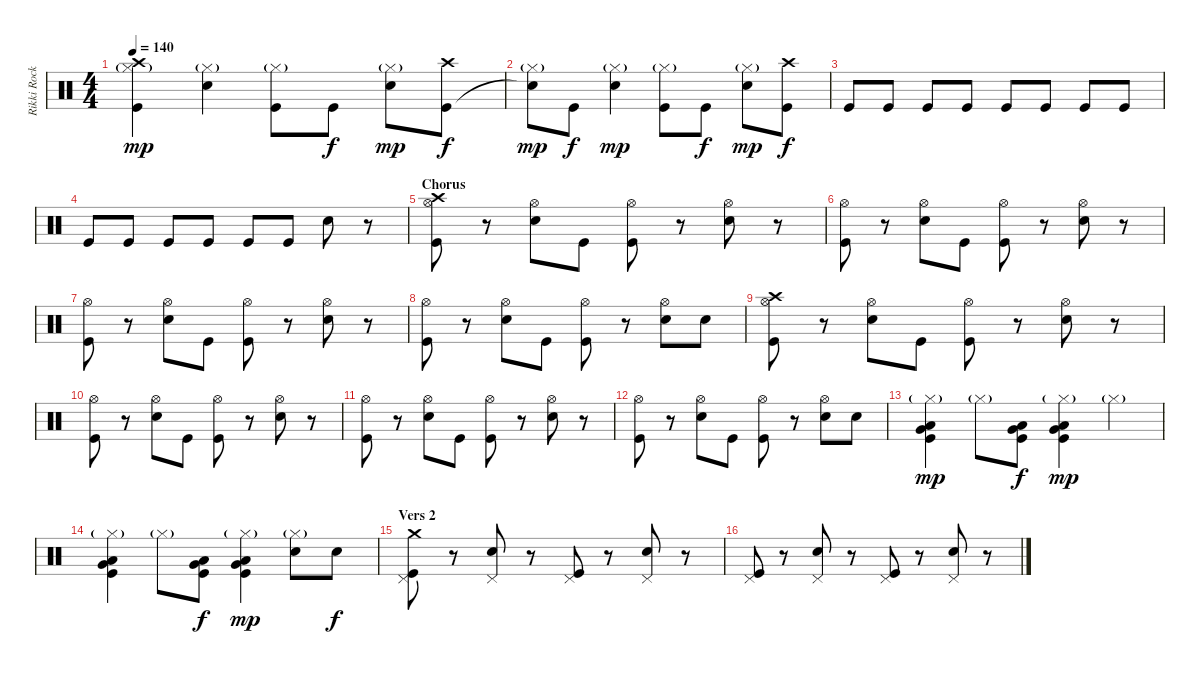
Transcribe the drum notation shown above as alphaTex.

\track ("Rikki Rockett - Drums" "Rikki Rock") {instrument percussion}
\staff {score}
\articulation defaults
\ts (4 4)
\tempo 140
\clef neutral
\ks c
("Hi-Hat (closed)"{g} "Crash high (hit)" "Kick (hit)").4{dy mp} ("Hi-Hat (closed)"{g} "Snare (hit) 2").4 ("Hi-Hat (closed)"{g} "Kick (hit)").8 "Kick (hit)".8{dy f} ("Hi-Hat (closed)"{g} "Snare (hit) 2").8{dy mp} ("Crash high (hit)" "Kick (hit)").8{dy f} |
("Hi-Hat (closed)"{g} "Snare (hit)"{t}).8{dy mp} "Kick (hit)".8{dy f} ("Hi-Hat (closed)"{g} "Snare (hit) 2").4{dy mp} ("Hi-Hat (closed)"{g} "Kick (hit)").8 "Kick (hit)".8{dy f} ("Hi-Hat (closed)"{g} "Snare (hit) 2").8{dy mp} ("Crash high (hit)" "Kick (hit)").8{dy f} |
"Kick (hit)".8 "Kick (hit)".8 "Kick (hit)".8 "Kick (hit)".8 "Kick (hit)".8 "Kick (hit)".8 "Kick (hit)".8 "Kick (hit)".8 |
"Kick (hit)".8 "Kick (hit)".8 "Kick (hit)".8 "Kick (hit)".8 "Kick (hit)".8 "Kick (hit)".8 "Snare (hit) 2".8 r.8 |
\section ("" "Chorus")
("Hi-Hat (open)" "Crash high (hit)" "Kick (hit)").8 r.8 ("Hi-Hat (open)" "Snare (hit) 2").8 "Kick (hit)".8 ("Hi-Hat (open)" "Kick (hit)").8 r.8 ("Hi-Hat (open)" "Snare (hit) 2").8 r.8 |
("Hi-Hat (open)" "Kick (hit)").8 r.8 ("Hi-Hat (open)" "Snare (hit) 2").8 "Kick (hit)".8 ("Hi-Hat (open)" "Kick (hit)").8 r.8 ("Hi-Hat (open)" "Snare (hit) 2").8 r.8 |
("Hi-Hat (open)" "Kick (hit)").8 r.8 ("Hi-Hat (open)" "Snare (hit) 2").8 "Kick (hit)".8 ("Hi-Hat (open)" "Kick (hit)").8 r.8 ("Hi-Hat (open)" "Snare (hit) 2").8 r.8 |
("Hi-Hat (open)" "Kick (hit)").8 r.8 ("Hi-Hat (open)" "Snare (hit) 2").8 "Kick (hit)".8 ("Hi-Hat (open)" "Kick (hit)").8 r.8 ("Hi-Hat (open)" "Snare (hit) 2").8 "Snare (hit) 2".8 |
("Hi-Hat (open)" "Crash high (hit)" "Kick (hit)").8 r.8 ("Hi-Hat (open)" "Snare (hit) 2").8 "Kick (hit)".8 ("Hi-Hat (open)" "Kick (hit)").8 r.8 ("Hi-Hat (open)" "Snare (hit) 2").8 r.8 |
("Hi-Hat (open)" "Kick (hit)").8 r.8 ("Hi-Hat (open)" "Snare (hit) 2").8 "Kick (hit)".8 ("Hi-Hat (open)" "Kick (hit)").8 r.8 ("Hi-Hat (open)" "Snare (hit) 2").8 r.8 |
("Hi-Hat (open)" "Kick (hit)").8 r.8 ("Hi-Hat (open)" "Snare (hit) 2").8 "Kick (hit)".8 ("Hi-Hat (open)" "Kick (hit)").8 r.8 ("Hi-Hat (open)" "Snare (hit) 2").8 r.8 |
("Hi-Hat (open)" "Kick (hit)").8 r.8 ("Hi-Hat (open)" "Snare (hit) 2").8 "Kick (hit)".8 ("Hi-Hat (open)" "Kick (hit)").8 r.8 ("Hi-Hat (open)" "Snare (hit) 2").8 "Snare (hit) 2".8 |
("Hi-Hat (closed)"{g} "Low Tom (hit)" "Very Low Tom (hit)" "Kick (hit)").4{dy mp} "Hi-Hat (closed)"{g}.8 ("Low Tom (hit)" "Very Low Tom (hit)" "Kick (hit)").8{dy f} ("Hi-Hat (closed)"{g} "Low Tom (hit)" "Very Low Tom (hit)" "Kick (hit)").4{dy mp} "Hi-Hat (closed)"{g}.4 |
("Hi-Hat (closed)"{g} "Low Tom (hit)" "Very Low Tom (hit)" "Kick (hit)").4 "Hi-Hat (closed)"{g}.8 ("Low Tom (hit)" "Very Low Tom (hit)" "Kick (hit)").8{dy f} ("Hi-Hat (closed)"{g} "Low Tom (hit)" "Very Low Tom (hit)" "Kick (hit)").4{dy mp} ("Hi-Hat (closed)"{g} "Snare (hit) 2").8 "Snare (hit) 2".8{dy f} |
\section ("" "Vers 2")
("Pedal Hi-Hat (hit)" "Crash medium (hit)" "Kick (hit)").8 r.8 ("Pedal Hi-Hat (hit)" "Snare (hit) 2").8 r.8 ("Pedal Hi-Hat (hit)" "Kick (hit)").8 r.8 ("Pedal Hi-Hat (hit)" "Snare (hit) 2").8 r.8 |
("Pedal Hi-Hat (hit)" "Kick (hit)").8 r.8 ("Pedal Hi-Hat (hit)" "Snare (hit) 2").8 r.8 ("Pedal Hi-Hat (hit)" "Kick (hit)").8 r.8 ("Pedal Hi-Hat (hit)" "Snare (hit) 2").8 r.8
